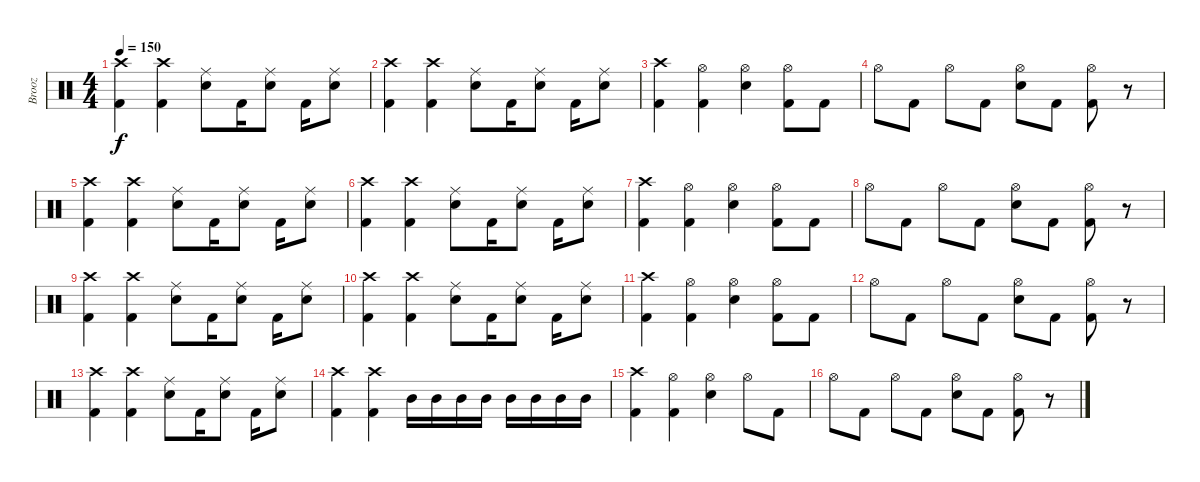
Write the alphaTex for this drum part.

\track ("Brooz" "Brooz") {instrument percussion}
\staff {score}
\articulation defaults
\ts (4 4)
\tempo 150
\clef neutral
\ks c
("Crash high (hit)" "Kick (hit) 2").4{dy f} ("Crash high (hit)" "Kick (hit) 2").4 ("Ride (middle)" "Electric Snare (hit)").8 "Kick (hit) 2".16 ("Ride (middle)" "Electric Snare (hit)").8 "Kick (hit) 2".16 ("Ride (middle)" "Electric Snare (hit)").8 |
("Crash high (hit)" "Kick (hit) 2").4 ("Crash high (hit)" "Kick (hit) 2").4 ("Ride (middle)" "Electric Snare (hit)").8 "Kick (hit) 2".16 ("Ride (middle)" "Electric Snare (hit)").8 "Kick (hit) 2".16 ("Ride (middle)" "Electric Snare (hit)").8 |
("Crash high (hit)" "Kick (hit) 2").4 ("Hi-Hat (open)" "Kick (hit) 2").4 ("Hi-Hat (open)" "Electric Snare (hit)").4 ("Hi-Hat (open)" "Kick (hit) 2").8 "Kick (hit) 2".8 |
"Hi-Hat (open)".8 "Kick (hit) 2".8 "Hi-Hat (open)".8 "Kick (hit) 2".8 ("Hi-Hat (open)" "Electric Snare (hit)").8 "Kick (hit) 2".8 ("Hi-Hat (open)" "Kick (hit) 2").8 r.8 |
("Crash high (hit)" "Kick (hit) 2").4 ("Crash high (hit)" "Kick (hit) 2").4 ("Ride (middle)" "Electric Snare (hit)").8 "Kick (hit) 2".16 ("Ride (middle)" "Electric Snare (hit)").8 "Kick (hit) 2".16 ("Ride (middle)" "Electric Snare (hit)").8 |
("Crash high (hit)" "Kick (hit) 2").4 ("Crash high (hit)" "Kick (hit) 2").4 ("Ride (middle)" "Electric Snare (hit)").8 "Kick (hit) 2".16 ("Ride (middle)" "Electric Snare (hit)").8 "Kick (hit) 2".16 ("Ride (middle)" "Electric Snare (hit)").8 |
("Crash high (hit)" "Kick (hit) 2").4 ("Hi-Hat (open)" "Kick (hit) 2").4 ("Hi-Hat (open)" "Electric Snare (hit)").4 ("Hi-Hat (open)" "Kick (hit) 2").8 "Kick (hit) 2".8 |
"Hi-Hat (open)".8 "Kick (hit) 2".8 "Hi-Hat (open)".8 "Kick (hit) 2".8 ("Hi-Hat (open)" "Electric Snare (hit)").8 "Kick (hit) 2".8 ("Hi-Hat (open)" "Kick (hit) 2").8 r.8 |
("Crash high (hit)" "Kick (hit) 2").4 ("Crash high (hit)" "Kick (hit) 2").4 ("Ride (middle)" "Electric Snare (hit)").8 "Kick (hit) 2".16 ("Ride (middle)" "Electric Snare (hit)").8 "Kick (hit) 2".16 ("Ride (middle)" "Electric Snare (hit)").8 |
("Crash high (hit)" "Kick (hit) 2").4 ("Crash high (hit)" "Kick (hit) 2").4 ("Ride (middle)" "Electric Snare (hit)").8 "Kick (hit) 2".16 ("Ride (middle)" "Electric Snare (hit)").8 "Kick (hit) 2".16 ("Ride (middle)" "Electric Snare (hit)").8 |
("Crash high (hit)" "Kick (hit) 2").4 ("Hi-Hat (open)" "Kick (hit) 2").4 ("Hi-Hat (open)" "Electric Snare (hit)").4 ("Hi-Hat (open)" "Kick (hit) 2").8 "Kick (hit) 2".8 |
"Hi-Hat (open)".8 "Kick (hit) 2".8 "Hi-Hat (open)".8 "Kick (hit) 2".8 ("Hi-Hat (open)" "Electric Snare (hit)").8 "Kick (hit) 2".8 ("Hi-Hat (open)" "Kick (hit) 2").8 r.8 |
("Crash high (hit)" "Kick (hit) 2").4 ("Crash high (hit)" "Kick (hit) 2").4 ("Ride (middle)" "Electric Snare (hit)").8 "Kick (hit) 2".16 ("Ride (middle)" "Electric Snare (hit)").8 "Kick (hit) 2".16 ("Ride (middle)" "Electric Snare (hit)").8 |
("Crash high (hit)" "Kick (hit) 2").4 ("Crash high (hit)" "Kick (hit) 2").4 "Mid Tom (hit)".16 "Mid Tom (hit)".16 "Mid Tom (hit)".16 "Mid Tom (hit)".16 "Mid Tom (hit)".16 "Mid Tom (hit)".16 "Mid Tom (hit)".16 "Mid Tom (hit)".16 |
("Crash high (hit)" "Kick (hit) 2").4 ("Hi-Hat (open)" "Kick (hit) 2").4 ("Hi-Hat (open)" "Electric Snare (hit)").4 "Hi-Hat (open)".8 "Kick (hit) 2".8 |
"Hi-Hat (open)".8 "Kick (hit) 2".8 "Hi-Hat (open)".8 "Kick (hit) 2".8 ("Hi-Hat (open)" "Electric Snare (hit)").8 "Kick (hit) 2".8 ("Hi-Hat (open)" "Kick (hit) 2").8 r.8
